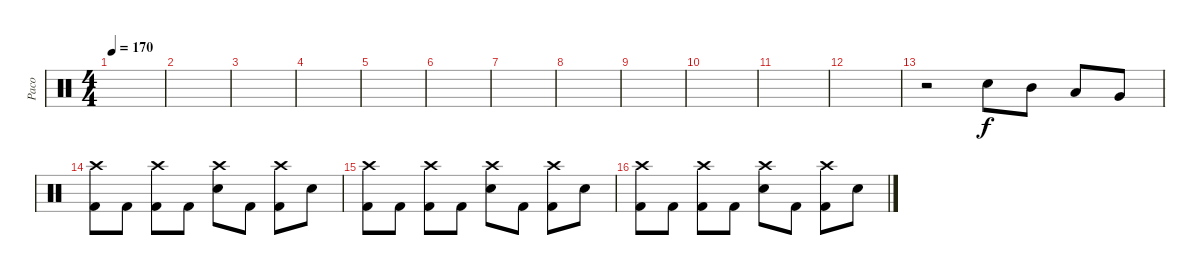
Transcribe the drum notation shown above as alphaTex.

\track ("Paco" "Paco") {instrument percussion}
\staff {score}
\articulation defaults
\ts (4 4)
\tempo 170
\clef neutral
\ks c
|
|
|
|
|
|
|
|
|
|
|
|
r.2 "Snare (hit) 2".8 "Mid Tom (hit)".8 "Low Tom (hit)".8 "Very Low Tom (hit)".8 |
("Crash high (hit)" "Kick (hit) 2").8 "Kick (hit) 2".8 ("Crash high (hit)" "Kick (hit) 2").8 "Kick (hit) 2".8 ("Crash high (hit)" "Electric Snare (hit)").8 "Kick (hit) 2".8 ("Crash high (hit)" "Kick (hit) 2").8 "Electric Snare (hit)".8 |
("Crash high (hit)" "Kick (hit) 2").8 "Kick (hit) 2".8 ("Crash high (hit)" "Kick (hit) 2").8 "Kick (hit) 2".8 ("Crash high (hit)" "Electric Snare (hit)").8 "Kick (hit) 2".8 ("Crash high (hit)" "Kick (hit) 2").8 "Electric Snare (hit)".8 |
("Crash high (hit)" "Kick (hit) 2").8 "Kick (hit) 2".8 ("Crash high (hit)" "Kick (hit) 2").8 "Kick (hit) 2".8 ("Crash high (hit)" "Electric Snare (hit)").8 "Kick (hit) 2".8 ("Crash high (hit)" "Kick (hit) 2").8 "Electric Snare (hit)".8
